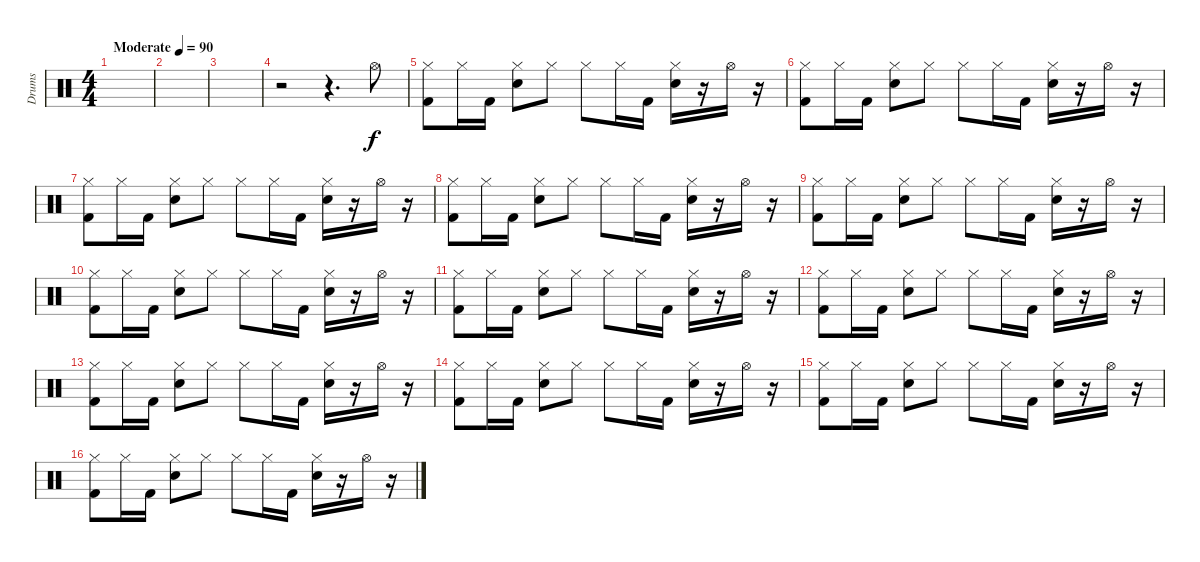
\track ("Drums" "Drums") {instrument percussion}
\staff {score}
\articulation defaults
\ts (4 4)
\tempo (90 "Moderate")
\clef neutral
\ks c
|
|
|
r.2 r.4{d} "Hi-Hat (open)".8 |
("Hi-Hat (closed)" "Kick (hit) 2").8 "Hi-Hat (closed)".16 "Kick (hit) 2".16 ("Hi-Hat (closed)" "Electric Snare (hit)").8 "Hi-Hat (closed)".8 "Hi-Hat (closed)".8 "Hi-Hat (closed)".16 "Kick (hit) 2".16 ("Hi-Hat (closed)" "Electric Snare (hit)").16 r.16 "Hi-Hat (open)".16 r.16 |
("Hi-Hat (closed)" "Kick (hit) 2").8 "Hi-Hat (closed)".16 "Kick (hit) 2".16 ("Hi-Hat (closed)" "Electric Snare (hit)").8 "Hi-Hat (closed)".8 "Hi-Hat (closed)".8 "Hi-Hat (closed)".16 "Kick (hit) 2".16 ("Hi-Hat (closed)" "Electric Snare (hit)").16 r.16 "Hi-Hat (open)".16 r.16 |
("Hi-Hat (closed)" "Kick (hit) 2").8 "Hi-Hat (closed)".16 "Kick (hit) 2".16 ("Hi-Hat (closed)" "Electric Snare (hit)").8 "Hi-Hat (closed)".8 "Hi-Hat (closed)".8 "Hi-Hat (closed)".16 "Kick (hit) 2".16 ("Hi-Hat (closed)" "Electric Snare (hit)").16 r.16 "Hi-Hat (open)".16 r.16 |
("Hi-Hat (closed)" "Kick (hit) 2").8 "Hi-Hat (closed)".16 "Kick (hit) 2".16 ("Hi-Hat (closed)" "Electric Snare (hit)").8 "Hi-Hat (closed)".8 "Hi-Hat (closed)".8 "Hi-Hat (closed)".16 "Kick (hit) 2".16 ("Hi-Hat (closed)" "Electric Snare (hit)").16 r.16 "Hi-Hat (open)".16 r.16 |
("Hi-Hat (closed)" "Kick (hit) 2").8 "Hi-Hat (closed)".16 "Kick (hit) 2".16 ("Hi-Hat (closed)" "Electric Snare (hit)").8 "Hi-Hat (closed)".8 "Hi-Hat (closed)".8 "Hi-Hat (closed)".16 "Kick (hit) 2".16 ("Hi-Hat (closed)" "Electric Snare (hit)").16 r.16 "Hi-Hat (open)".16 r.16 |
("Hi-Hat (closed)" "Kick (hit) 2").8 "Hi-Hat (closed)".16 "Kick (hit) 2".16 ("Hi-Hat (closed)" "Electric Snare (hit)").8 "Hi-Hat (closed)".8 "Hi-Hat (closed)".8 "Hi-Hat (closed)".16 "Kick (hit) 2".16 ("Hi-Hat (closed)" "Electric Snare (hit)").16 r.16 "Hi-Hat (open)".16 r.16 |
("Hi-Hat (closed)" "Kick (hit) 2").8 "Hi-Hat (closed)".16 "Kick (hit) 2".16 ("Hi-Hat (closed)" "Electric Snare (hit)").8 "Hi-Hat (closed)".8 "Hi-Hat (closed)".8 "Hi-Hat (closed)".16 "Kick (hit) 2".16 ("Hi-Hat (closed)" "Electric Snare (hit)").16 r.16 "Hi-Hat (open)".16 r.16 |
("Hi-Hat (closed)" "Kick (hit) 2").8 "Hi-Hat (closed)".16 "Kick (hit) 2".16 ("Hi-Hat (closed)" "Electric Snare (hit)").8 "Hi-Hat (closed)".8 "Hi-Hat (closed)".8 "Hi-Hat (closed)".16 "Kick (hit) 2".16 ("Hi-Hat (closed)" "Electric Snare (hit)").16 r.16 "Hi-Hat (open)".16 r.16 |
("Hi-Hat (closed)" "Kick (hit) 2").8 "Hi-Hat (closed)".16 "Kick (hit) 2".16 ("Hi-Hat (closed)" "Electric Snare (hit)").8 "Hi-Hat (closed)".8 "Hi-Hat (closed)".8 "Hi-Hat (closed)".16 "Kick (hit) 2".16 ("Hi-Hat (closed)" "Electric Snare (hit)").16 r.16 "Hi-Hat (open)".16 r.16 |
("Hi-Hat (closed)" "Kick (hit) 2").8 "Hi-Hat (closed)".16 "Kick (hit) 2".16 ("Hi-Hat (closed)" "Electric Snare (hit)").8 "Hi-Hat (closed)".8 "Hi-Hat (closed)".8 "Hi-Hat (closed)".16 "Kick (hit) 2".16 ("Hi-Hat (closed)" "Electric Snare (hit)").16 r.16 "Hi-Hat (open)".16 r.16 |
("Hi-Hat (closed)" "Kick (hit) 2").8 "Hi-Hat (closed)".16 "Kick (hit) 2".16 ("Hi-Hat (closed)" "Electric Snare (hit)").8 "Hi-Hat (closed)".8 "Hi-Hat (closed)".8 "Hi-Hat (closed)".16 "Kick (hit) 2".16 ("Hi-Hat (closed)" "Electric Snare (hit)").16 r.16 "Hi-Hat (open)".16 r.16 |
("Hi-Hat (closed)" "Kick (hit) 2").8 "Hi-Hat (closed)".16 "Kick (hit) 2".16 ("Hi-Hat (closed)" "Electric Snare (hit)").8 "Hi-Hat (closed)".8 "Hi-Hat (closed)".8 "Hi-Hat (closed)".16 "Kick (hit) 2".16 ("Hi-Hat (closed)" "Electric Snare (hit)").16 r.16 "Hi-Hat (open)".16 r.16
